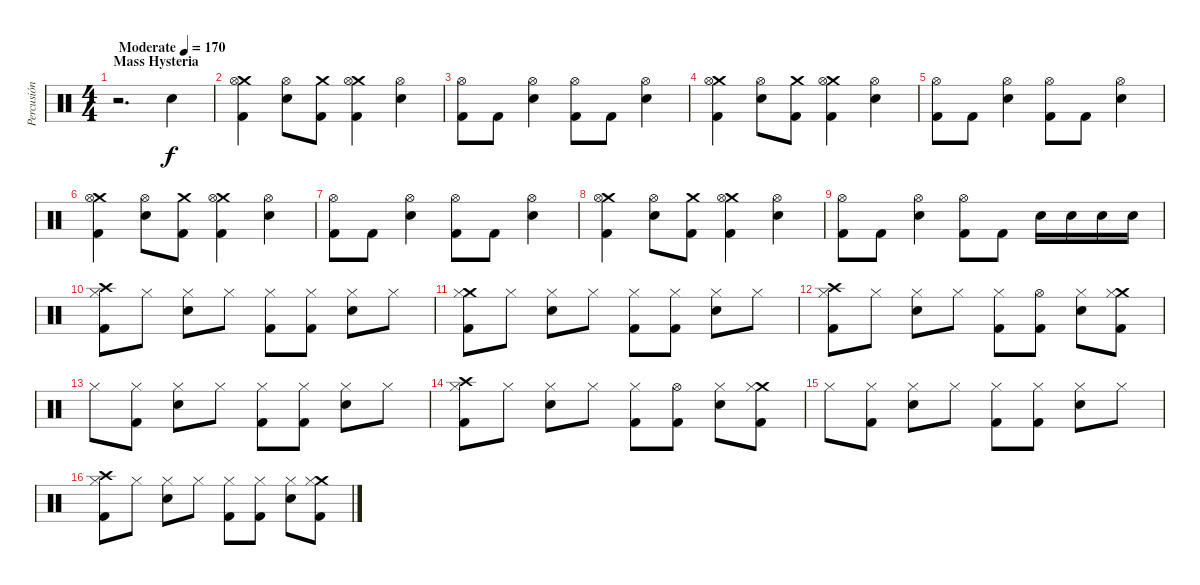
\track ("Percusión" "Percusión") {instrument percussion}
\staff {score}
\articulation defaults
\ts (4 4)
\section ("" "Mass Hysteria")
\tempo (170 "Moderate")
\clef neutral
\ks c
r.2{d dy f} "Electric Snare (hit)".4 |
("Crash medium (hit)" "Hi-Hat (open)" "Kick (hit) 2").4 ("Hi-Hat (open)" "Electric Snare (hit)").8 ("Crash medium (hit)" "Kick (hit) 2").8 ("Crash medium (hit)" "Hi-Hat (open)" "Kick (hit) 2").4 ("Hi-Hat (open)" "Electric Snare (hit)").4 |
("Hi-Hat (open)" "Kick (hit) 2").8 "Kick (hit) 2".8 ("Hi-Hat (open)" "Electric Snare (hit)").4 ("Hi-Hat (open)" "Kick (hit) 2").8 "Kick (hit) 2".8 ("Hi-Hat (open)" "Electric Snare (hit)").4 |
("Crash medium (hit)" "Hi-Hat (open)" "Kick (hit) 2").4 ("Hi-Hat (open)" "Electric Snare (hit)").8 ("Crash medium (hit)" "Kick (hit) 2").8 ("Crash medium (hit)" "Hi-Hat (open)" "Kick (hit) 2").4 ("Hi-Hat (open)" "Electric Snare (hit)").4 |
("Hi-Hat (open)" "Kick (hit) 2").8 "Kick (hit) 2".8 ("Hi-Hat (open)" "Electric Snare (hit)").4 ("Hi-Hat (open)" "Kick (hit) 2").8 "Kick (hit) 2".8 ("Hi-Hat (open)" "Electric Snare (hit)").4 |
("Crash medium (hit)" "Hi-Hat (open)" "Kick (hit) 2").4 ("Hi-Hat (open)" "Electric Snare (hit)").8 ("Crash medium (hit)" "Kick (hit) 2").8 ("Crash medium (hit)" "Hi-Hat (open)" "Kick (hit) 2").4 ("Hi-Hat (open)" "Electric Snare (hit)").4 |
("Hi-Hat (open)" "Kick (hit) 2").8 "Kick (hit) 2".8 ("Hi-Hat (open)" "Electric Snare (hit)").4 ("Hi-Hat (open)" "Kick (hit) 2").8 "Kick (hit) 2".8 ("Hi-Hat (open)" "Electric Snare (hit)").4 |
("Crash medium (hit)" "Hi-Hat (open)" "Kick (hit) 2").4 ("Hi-Hat (open)" "Electric Snare (hit)").8 ("Crash medium (hit)" "Kick (hit) 2").8 ("Crash medium (hit)" "Hi-Hat (open)" "Kick (hit) 2").4 ("Hi-Hat (open)" "Electric Snare (hit)").4 |
("Hi-Hat (open)" "Kick (hit) 2").8 "Kick (hit) 2".8 ("Hi-Hat (open)" "Electric Snare (hit)").4 ("Hi-Hat (open)" "Kick (hit) 2").8 "Kick (hit) 2".8 "Electric Snare (hit)".16 "Electric Snare (hit)".16 "Electric Snare (hit)".16 "Electric Snare (hit)".16 |
("Crash high (hit)" "Hi-Hat (closed)" "Kick (hit) 2").8 "Hi-Hat (closed)".8 ("Hi-Hat (closed)" "Electric Snare (hit)").8 "Hi-Hat (closed)".8 ("Hi-Hat (closed)" "Kick (hit) 2").8 ("Hi-Hat (closed)" "Kick (hit) 2").8 ("Hi-Hat (closed)" "Electric Snare (hit)").8 "Hi-Hat (closed)".8 |
("Crash medium (hit)" "Hi-Hat (closed)" "Kick (hit) 2").8 "Hi-Hat (closed)".8 ("Hi-Hat (closed)" "Electric Snare (hit)").8 "Hi-Hat (closed)".8 ("Hi-Hat (closed)" "Kick (hit) 2").8 ("Hi-Hat (closed)" "Kick (hit) 2").8 ("Hi-Hat (closed)" "Electric Snare (hit)").8 "Hi-Hat (closed)".8 |
("Crash high (hit)" "Hi-Hat (closed)" "Kick (hit) 2").8 "Hi-Hat (closed)".8 ("Hi-Hat (closed)" "Electric Snare (hit)").8 "Hi-Hat (closed)".8 ("Hi-Hat (closed)" "Kick (hit) 2").8 ("Hi-Hat (open)" "Kick (hit) 2").8 ("Hi-Hat (closed)" "Electric Snare (hit)").8 ("Crash medium (hit)" "Hi-Hat (closed)" "Kick (hit) 2").8 |
"Hi-Hat (closed)".8 ("Hi-Hat (closed)" "Kick (hit) 2").8 ("Hi-Hat (closed)" "Electric Snare (hit)").8 "Hi-Hat (closed)".8 ("Hi-Hat (closed)" "Kick (hit) 2").8 ("Hi-Hat (closed)" "Kick (hit) 2").8 ("Hi-Hat (closed)" "Electric Snare (hit)").8 "Hi-Hat (closed)".8 |
("Crash high (hit)" "Hi-Hat (closed)" "Kick (hit) 2").8 "Hi-Hat (closed)".8 ("Hi-Hat (closed)" "Electric Snare (hit)").8 "Hi-Hat (closed)".8 ("Hi-Hat (closed)" "Kick (hit) 2").8 ("Hi-Hat (open)" "Kick (hit) 2").8 ("Hi-Hat (closed)" "Electric Snare (hit)").8 ("Crash medium (hit)" "Hi-Hat (closed)" "Kick (hit) 2").8 |
"Hi-Hat (closed)".8 ("Hi-Hat (closed)" "Kick (hit) 2").8 ("Hi-Hat (closed)" "Electric Snare (hit)").8 "Hi-Hat (closed)".8 ("Hi-Hat (closed)" "Kick (hit) 2").8 ("Hi-Hat (closed)" "Kick (hit) 2").8 ("Hi-Hat (closed)" "Electric Snare (hit)").8 "Hi-Hat (closed)".8 |
("Crash high (hit)" "Hi-Hat (closed)" "Kick (hit) 2").8 "Hi-Hat (closed)".8 ("Hi-Hat (closed)" "Electric Snare (hit)").8 "Hi-Hat (closed)".8 ("Hi-Hat (closed)" "Kick (hit) 2").8 ("Hi-Hat (closed)" "Kick (hit) 2").8 ("Hi-Hat (closed)" "Electric Snare (hit)").8 ("Crash medium (hit)" "Hi-Hat (closed)" "Kick (hit) 2").8
